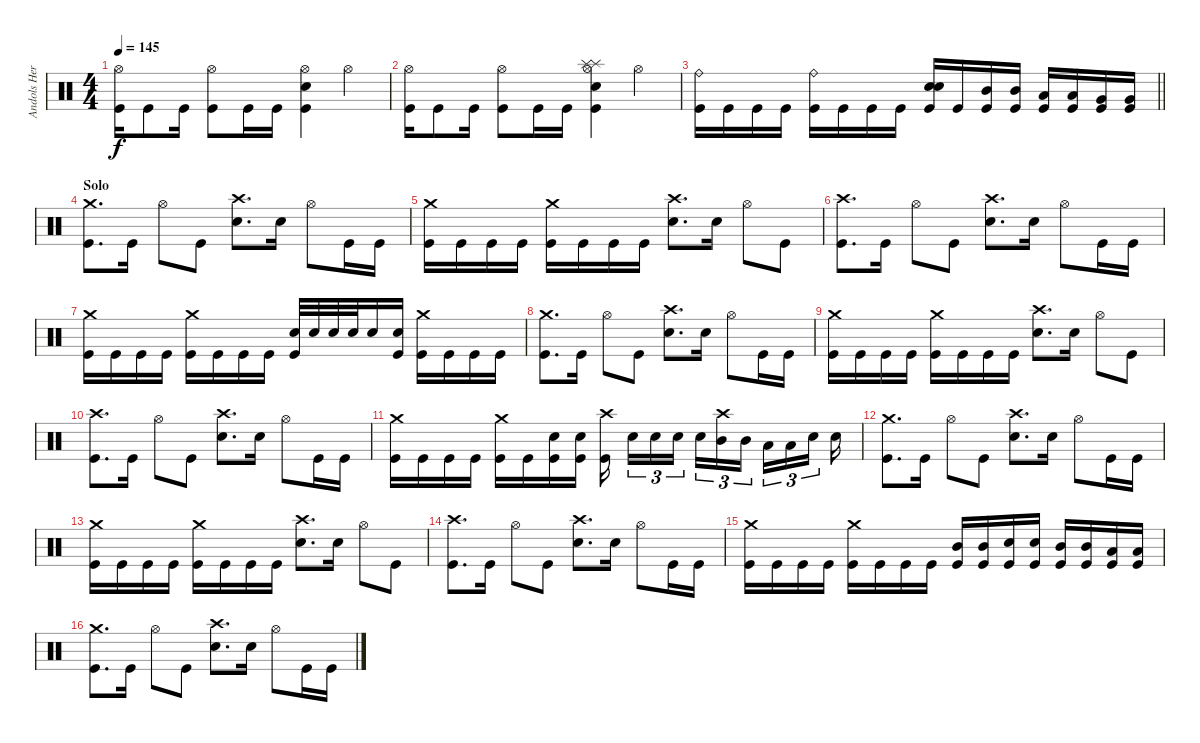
\track ("Andols Herrick" "Andols Her") {instrument percussion}
\staff
\articulation defaults
\ts (4 4)
\tempo 145
\clef neutral
\ks c
("Hi-Hat (open)" "Kick (hit)").16{dy f} "Kick (hit)".8 "Kick (hit)".16 ("Hi-Hat (open)" "Kick (hit)").8 "Kick (hit)".16 "Kick (hit)".16 ("Hi-Hat (open)" "Electric Snare (hit)" "Kick (hit)").4 "Hi-Hat (open)".4 |
("Hi-Hat (open)" "Kick (hit)").16 "Kick (hit)".8 "Kick (hit)".16 ("Hi-Hat (open)" "Kick (hit)").8 "Kick (hit)".16 "Kick (hit)".16 ("Splash (hit)" "Splash (hit)" "Hi-Hat (open)" "Electric Snare (hit)" "Kick (hit)").4 "Hi-Hat (open)".4 |
\barLineRight lightlight
("Ride (bell)" "Kick (hit)").16 "Kick (hit)".16 "Kick (hit)".16 "Kick (hit)".16 ("Ride (bell)" "Kick (hit)").16 "Kick (hit)".16 "Kick (hit)".16 "Kick (hit)".16 ("Electric Snare (hit)" "Electric Snare (hit)" "Kick (hit)").16 "Kick (hit)".16 ("Mid Tom (hit)" "Kick (hit)").16 ("Mid Tom (hit)" "Kick (hit)").16 ("Low Tom (hit)" "Kick (hit)").16 ("Low Tom (hit)" "Kick (hit)").16 ("Very Low Tom (hit)" "Kick (hit)").16 ("Very Low Tom (hit)" "Kick (hit)").16 |
\section ("" "Solo")
("Crash medium (hit)" "Kick (hit)").8{d} "Kick (hit)".16 "Hi-Hat (open)".8 "Kick (hit)".8 ("Crash high (hit)" "Electric Snare (hit)").8{d} "Electric Snare (hit)".16 "Hi-Hat (open)".8 "Kick (hit)".16 "Kick (hit)".16 |
("Crash medium (hit)" "Kick (hit)").16 "Kick (hit)".16 "Kick (hit)".16 "Kick (hit)".16 ("Crash medium (hit)" "Kick (hit)").16 "Kick (hit)".16 "Kick (hit)".16 "Kick (hit)".16 ("Crash high (hit)" "Electric Snare (hit)").8{d} "Electric Snare (hit)".16 "Hi-Hat (open)".8 "Kick (hit)".8 |
("Crash high (hit)" "Kick (hit)").8{d} "Kick (hit)".16 "Hi-Hat (open)".8 "Kick (hit)".8 ("Crash high (hit)" "Electric Snare (hit)").8{d} "Electric Snare (hit)".16 "Hi-Hat (open)".8 "Kick (hit)".16 "Kick (hit)".16 |
("Crash medium (hit)" "Kick (hit)").16 "Kick (hit)".16 "Kick (hit)".16 "Kick (hit)".16 ("Crash medium (hit)" "Kick (hit)").16 "Kick (hit)".16 "Kick (hit)".16 "Kick (hit)".16 ("Electric Snare (hit)" "Kick (hit)").32 "Electric Snare (hit)".32 "Electric Snare (hit)".32 "Electric Snare (hit)".32 "Electric Snare (hit)".16 ("Electric Snare (hit)" "Kick (hit)").16 ("Crash medium (hit)" "Kick (hit)").16 "Kick (hit)".16 "Kick (hit)".16 "Kick (hit)".16 |
("Crash medium (hit)" "Kick (hit)").8{d} "Kick (hit)".16 "Hi-Hat (open)".8 "Kick (hit)".8 ("Crash high (hit)" "Electric Snare (hit)").8{d} "Electric Snare (hit)".16 "Hi-Hat (open)".8 "Kick (hit)".16 "Kick (hit)".16 |
("Crash medium (hit)" "Kick (hit)").16 "Kick (hit)".16 "Kick (hit)".16 "Kick (hit)".16 ("Crash medium (hit)" "Kick (hit)").16 "Kick (hit)".16 "Kick (hit)".16 "Kick (hit)".16 ("Crash high (hit)" "Electric Snare (hit)").8{d} "Electric Snare (hit)".16 "Hi-Hat (open)".8 "Kick (hit)".8 |
("Crash high (hit)" "Kick (hit)").8{d} "Kick (hit)".16 "Hi-Hat (open)".8 "Kick (hit)".8 ("Crash high (hit)" "Electric Snare (hit)").8{d} "Electric Snare (hit)".16 "Hi-Hat (open)".8 "Kick (hit)".16 "Kick (hit)".16 |
("Crash medium (hit)" "Kick (hit)").16 "Kick (hit)".16 "Kick (hit)".16 "Kick (hit)".16 ("Crash medium (hit)" "Kick (hit)").16 "Kick (hit)".16 ("Electric Snare (hit)" "Kick (hit)").16 ("Electric Snare (hit)" "Kick (hit)").16 ("Crash high (hit)" "Kick (hit)").16{beam splitsecondary} "Electric Snare (hit)".16{tu (3 2)} "Electric Snare (hit)".16{tu (3 2)} "Electric Snare (hit)".16{tu (3 2) beam splitsecondary} "Electric Snare (hit)".16{tu (3 2)} ("Crash high (hit)" "Mid Tom (hit)").16{tu (3 2)} "Mid Tom (hit)".16{tu (3 2) beam splitsecondary} "Low Tom (hit)".16{tu (3 2)} "Low Tom (hit)".16{tu (3 2)} "Electric Snare (hit)".16{tu (3 2) beam splitsecondary} "Electric Snare (hit)".16 |
("Crash medium (hit)" "Kick (hit)").8{d} "Kick (hit)".16 "Hi-Hat (open)".8 "Kick (hit)".8 ("Crash high (hit)" "Electric Snare (hit)").8{d} "Electric Snare (hit)".16 "Hi-Hat (open)".8 "Kick (hit)".16 "Kick (hit)".16 |
("Crash medium (hit)" "Kick (hit)").16 "Kick (hit)".16 "Kick (hit)".16 "Kick (hit)".16 ("Crash medium (hit)" "Kick (hit)").16 "Kick (hit)".16 "Kick (hit)".16 "Kick (hit)".16 ("Crash high (hit)" "Electric Snare (hit)").8{d} "Electric Snare (hit)".16 "Hi-Hat (open)".8 "Kick (hit)".8 |
("Crash high (hit)" "Kick (hit)").8{d} "Kick (hit)".16 "Hi-Hat (open)".8 "Kick (hit)".8 ("Crash high (hit)" "Electric Snare (hit)").8{d} "Electric Snare (hit)".16 "Hi-Hat (open)".8 "Kick (hit)".16 "Kick (hit)".16 |
("Crash medium (hit)" "Kick (hit)").16 "Kick (hit)".16 "Kick (hit)".16 "Kick (hit)".16 ("Crash medium (hit)" "Kick (hit)").16 "Kick (hit)".16 "Kick (hit)".16 "Kick (hit)".16 ("Mid Tom (hit)" "Kick (hit)").16 ("Mid Tom (hit)" "Kick (hit)").16 ("Electric Snare (hit)" "Kick (hit)").16 ("Electric Snare (hit)" "Kick (hit)").16 ("Mid Tom (hit)" "Kick (hit)").16 ("Mid Tom (hit)" "Kick (hit)").16 ("Low Tom (hit)" "Kick (hit)").16 ("Low Tom (hit)" "Kick (hit)").16 |
("Crash medium (hit)" "Kick (hit)").8{d} "Kick (hit)".16 "Hi-Hat (open)".8 "Kick (hit)".8 ("Crash high (hit)" "Electric Snare (hit)").8{d} "Electric Snare (hit)".16 "Hi-Hat (open)".8 "Kick (hit)".16 "Kick (hit)".16
